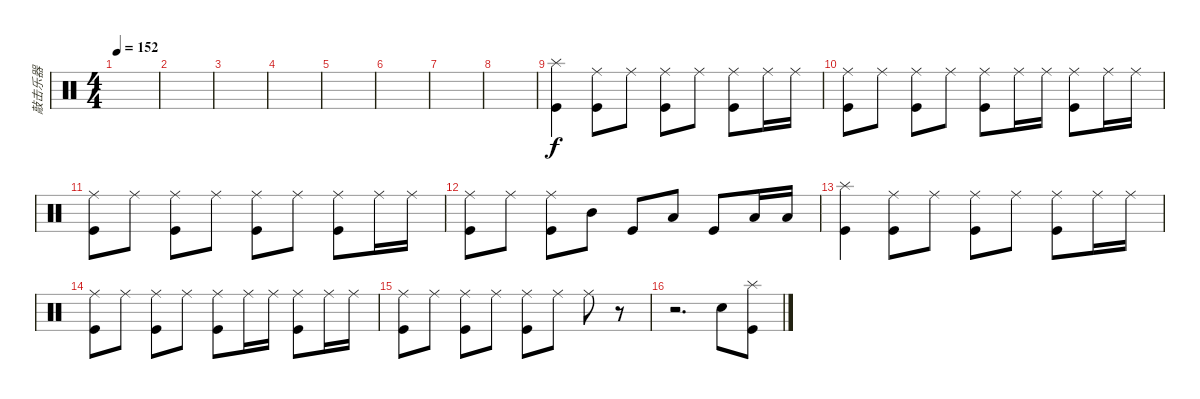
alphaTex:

\track ("敲击乐器" "敲击乐器") {instrument percussion}
\staff {score}
\articulation defaults
\ts (4 4)
\tempo 152
\clef neutral
\ks c
|
|
|
|
|
|
|
|
("Splash (hit)" "Kick (hit)").4 ("Ride (middle)" "Kick (hit)").8 "Ride (middle)".8 ("Ride (middle)" "Kick (hit)").8 "Ride (middle)".8 ("Ride (middle)" "Kick (hit)").8 "Ride (middle)".16 "Ride (middle)".16 |
("Ride (middle)" "Kick (hit)").8 "Ride (middle)".8 ("Ride (middle)" "Kick (hit)").8 "Ride (middle)".8 ("Ride (middle)" "Kick (hit)").8 "Ride (middle)".16 "Ride (middle)".16 ("Ride (middle)" "Kick (hit)").8 "Ride (middle)".16 "Ride (middle)".16 |
("Ride (middle)" "Kick (hit)").8 "Ride (middle)".8 ("Ride (middle)" "Kick (hit)").8 "Ride (middle)".8 ("Ride (middle)" "Kick (hit)").8 "Ride (middle)".8 ("Ride (middle)" "Kick (hit)").8 "Ride (middle)".16 "Ride (middle)".16 |
("Ride (middle)" "Kick (hit)").8 "Ride (middle)".8 ("Ride (middle)" "Kick (hit)").8 "Mid Tom (hit)".8 "Kick (hit)".8 "Low Tom (hit)".8 "Kick (hit)".8 "Low Floor Tom (hit)".16 "Low Floor Tom (hit)".16 |
("Splash (hit)" "Kick (hit)").4 ("Ride (middle)" "Kick (hit)").8 "Ride (middle)".8 ("Ride (middle)" "Kick (hit)").8 "Ride (middle)".8 ("Ride (middle)" "Kick (hit)").8 "Ride (middle)".16 "Ride (middle)".16 |
("Ride (middle)" "Kick (hit)").8 "Ride (middle)".8 ("Ride (middle)" "Kick (hit)").8 "Ride (middle)".8 ("Ride (middle)" "Kick (hit)").8 "Ride (middle)".16 "Ride (middle)".16 ("Ride (middle)" "Kick (hit)").8 "Ride (middle)".16 "Ride (middle)".16 |
("Ride (middle)" "Kick (hit)").8 "Ride (middle)".8 ("Ride (middle)" "Kick (hit)").8 "Ride (middle)".8 ("Ride (middle)" "Kick (hit)").8 "Ride (middle)".8 "Ride (middle)".8 r.8 |
r.2{d} "Snare (hit) 2".8 ("Splash (hit)" "Kick (hit)").8
